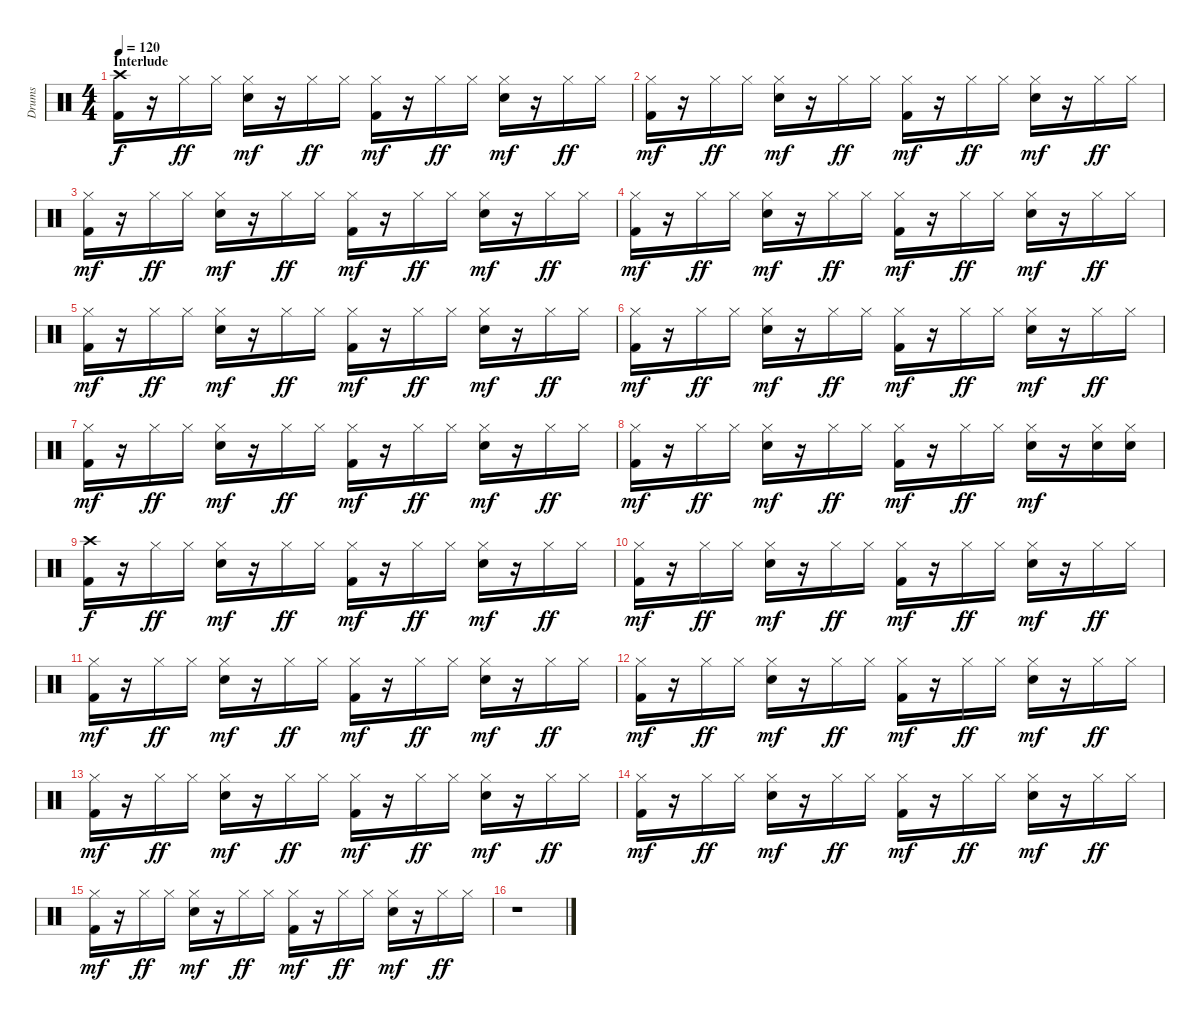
\track ("Drums" "Drums") {instrument percussion}
\staff {score}
\articulation defaults
\ts (4 4)
\section ("" "Interlude")
\tempo 120
\clef neutral
\ks c
("Crash high (hit)" "Kick (hit) 2").16{dy f} r.16 "Hi-Hat (closed)".16{dy ff} "Hi-Hat (closed)".16 ("Hi-Hat (closed)" "Electric Snare (hit)").16{dy mf} r.16 "Hi-Hat (closed)".16{dy ff} "Hi-Hat (closed)".16 ("Hi-Hat (closed)" "Kick (hit) 2").16{dy mf} r.16 "Hi-Hat (closed)".16{dy ff} "Hi-Hat (closed)".16 ("Hi-Hat (closed)" "Electric Snare (hit)").16{dy mf} r.16 "Hi-Hat (closed)".16{dy ff} "Hi-Hat (closed)".16 |
("Hi-Hat (closed)" "Kick (hit) 2").16{dy mf} r.16 "Hi-Hat (closed)".16{dy ff} "Hi-Hat (closed)".16 ("Hi-Hat (closed)" "Electric Snare (hit)").16{dy mf} r.16 "Hi-Hat (closed)".16{dy ff} "Hi-Hat (closed)".16 ("Hi-Hat (closed)" "Kick (hit) 2").16{dy mf} r.16 "Hi-Hat (closed)".16{dy ff} "Hi-Hat (closed)".16 ("Hi-Hat (closed)" "Electric Snare (hit)").16{dy mf} r.16 "Hi-Hat (closed)".16{dy ff} "Hi-Hat (closed)".16 |
("Hi-Hat (closed)" "Kick (hit) 2").16{dy mf} r.16 "Hi-Hat (closed)".16{dy ff} "Hi-Hat (closed)".16 ("Hi-Hat (closed)" "Electric Snare (hit)").16{dy mf} r.16 "Hi-Hat (closed)".16{dy ff} "Hi-Hat (closed)".16 ("Hi-Hat (closed)" "Kick (hit) 2").16{dy mf} r.16 "Hi-Hat (closed)".16{dy ff} "Hi-Hat (closed)".16 ("Hi-Hat (closed)" "Electric Snare (hit)").16{dy mf} r.16 "Hi-Hat (closed)".16{dy ff} "Hi-Hat (closed)".16 |
("Hi-Hat (closed)" "Kick (hit) 2").16{dy mf} r.16 "Hi-Hat (closed)".16{dy ff} "Hi-Hat (closed)".16 ("Hi-Hat (closed)" "Electric Snare (hit)").16{dy mf} r.16 "Hi-Hat (closed)".16{dy ff} "Hi-Hat (closed)".16 ("Hi-Hat (closed)" "Kick (hit) 2").16{dy mf} r.16 "Hi-Hat (closed)".16{dy ff} "Hi-Hat (closed)".16 ("Hi-Hat (closed)" "Electric Snare (hit)").16{dy mf} r.16 "Hi-Hat (closed)".16{dy ff} "Hi-Hat (closed)".16 |
("Hi-Hat (closed)" "Kick (hit) 2").16{dy mf} r.16 "Hi-Hat (closed)".16{dy ff} "Hi-Hat (closed)".16 ("Hi-Hat (closed)" "Electric Snare (hit)").16{dy mf} r.16 "Hi-Hat (closed)".16{dy ff} "Hi-Hat (closed)".16 ("Hi-Hat (closed)" "Kick (hit) 2").16{dy mf} r.16 "Hi-Hat (closed)".16{dy ff} "Hi-Hat (closed)".16 ("Hi-Hat (closed)" "Electric Snare (hit)").16{dy mf} r.16 "Hi-Hat (closed)".16{dy ff} "Hi-Hat (closed)".16 |
("Hi-Hat (closed)" "Kick (hit) 2").16{dy mf} r.16 "Hi-Hat (closed)".16{dy ff} "Hi-Hat (closed)".16 ("Hi-Hat (closed)" "Electric Snare (hit)").16{dy mf} r.16 "Hi-Hat (closed)".16{dy ff} "Hi-Hat (closed)".16 ("Hi-Hat (closed)" "Kick (hit) 2").16{dy mf} r.16 "Hi-Hat (closed)".16{dy ff} "Hi-Hat (closed)".16 ("Hi-Hat (closed)" "Electric Snare (hit)").16{dy mf} r.16 "Hi-Hat (closed)".16{dy ff} "Hi-Hat (closed)".16 |
("Hi-Hat (closed)" "Kick (hit) 2").16{dy mf} r.16 "Hi-Hat (closed)".16{dy ff} "Hi-Hat (closed)".16 ("Hi-Hat (closed)" "Electric Snare (hit)").16{dy mf} r.16 "Hi-Hat (closed)".16{dy ff} "Hi-Hat (closed)".16 ("Hi-Hat (closed)" "Kick (hit) 2").16{dy mf} r.16 "Hi-Hat (closed)".16{dy ff} "Hi-Hat (closed)".16 ("Hi-Hat (closed)" "Electric Snare (hit)").16{dy mf} r.16 "Hi-Hat (closed)".16{dy ff} "Hi-Hat (closed)".16 |
("Hi-Hat (closed)" "Kick (hit) 2").16{dy mf} r.16 "Hi-Hat (closed)".16{dy ff} "Hi-Hat (closed)".16 ("Hi-Hat (closed)" "Electric Snare (hit)").16{dy mf} r.16 "Hi-Hat (closed)".16{dy ff} "Hi-Hat (closed)".16 ("Hi-Hat (closed)" "Kick (hit) 2").16{dy mf} r.16 "Hi-Hat (closed)".16{dy ff} "Hi-Hat (closed)".16 ("Hi-Hat (closed)" "Electric Snare (hit)").16{dy mf} r.16 ("Hi-Hat (closed)" "Electric Snare (hit)").16 ("Hi-Hat (closed)" "Electric Snare (hit)").16 |
("Crash high (hit)" "Kick (hit) 2").16{dy f} r.16 "Hi-Hat (closed)".16{dy ff} "Hi-Hat (closed)".16 ("Hi-Hat (closed)" "Electric Snare (hit)").16{dy mf} r.16 "Hi-Hat (closed)".16{dy ff} "Hi-Hat (closed)".16 ("Hi-Hat (closed)" "Kick (hit) 2").16{dy mf} r.16 "Hi-Hat (closed)".16{dy ff} "Hi-Hat (closed)".16 ("Hi-Hat (closed)" "Electric Snare (hit)").16{dy mf} r.16 "Hi-Hat (closed)".16{dy ff} "Hi-Hat (closed)".16 |
("Hi-Hat (closed)" "Kick (hit) 2").16{dy mf} r.16 "Hi-Hat (closed)".16{dy ff} "Hi-Hat (closed)".16 ("Hi-Hat (closed)" "Electric Snare (hit)").16{dy mf} r.16 "Hi-Hat (closed)".16{dy ff} "Hi-Hat (closed)".16 ("Hi-Hat (closed)" "Kick (hit) 2").16{dy mf} r.16 "Hi-Hat (closed)".16{dy ff} "Hi-Hat (closed)".16 ("Hi-Hat (closed)" "Electric Snare (hit)").16{dy mf} r.16 "Hi-Hat (closed)".16{dy ff} "Hi-Hat (closed)".16 |
("Hi-Hat (closed)" "Kick (hit) 2").16{dy mf} r.16 "Hi-Hat (closed)".16{dy ff} "Hi-Hat (closed)".16 ("Hi-Hat (closed)" "Electric Snare (hit)").16{dy mf} r.16 "Hi-Hat (closed)".16{dy ff} "Hi-Hat (closed)".16 ("Hi-Hat (closed)" "Kick (hit) 2").16{dy mf} r.16 "Hi-Hat (closed)".16{dy ff} "Hi-Hat (closed)".16 ("Hi-Hat (closed)" "Electric Snare (hit)").16{dy mf} r.16 "Hi-Hat (closed)".16{dy ff} "Hi-Hat (closed)".16 |
("Hi-Hat (closed)" "Kick (hit) 2").16{dy mf} r.16 "Hi-Hat (closed)".16{dy ff} "Hi-Hat (closed)".16 ("Hi-Hat (closed)" "Electric Snare (hit)").16{dy mf} r.16 "Hi-Hat (closed)".16{dy ff} "Hi-Hat (closed)".16 ("Hi-Hat (closed)" "Kick (hit) 2").16{dy mf} r.16 "Hi-Hat (closed)".16{dy ff} "Hi-Hat (closed)".16 ("Hi-Hat (closed)" "Electric Snare (hit)").16{dy mf} r.16 "Hi-Hat (closed)".16{dy ff} "Hi-Hat (closed)".16 |
("Hi-Hat (closed)" "Kick (hit) 2").16{dy mf} r.16 "Hi-Hat (closed)".16{dy ff} "Hi-Hat (closed)".16 ("Hi-Hat (closed)" "Electric Snare (hit)").16{dy mf} r.16 "Hi-Hat (closed)".16{dy ff} "Hi-Hat (closed)".16 ("Hi-Hat (closed)" "Kick (hit) 2").16{dy mf} r.16 "Hi-Hat (closed)".16{dy ff} "Hi-Hat (closed)".16 ("Hi-Hat (closed)" "Electric Snare (hit)").16{dy mf} r.16 "Hi-Hat (closed)".16{dy ff} "Hi-Hat (closed)".16 |
("Hi-Hat (closed)" "Kick (hit) 2").16{dy mf} r.16 "Hi-Hat (closed)".16{dy ff} "Hi-Hat (closed)".16 ("Hi-Hat (closed)" "Electric Snare (hit)").16{dy mf} r.16 "Hi-Hat (closed)".16{dy ff} "Hi-Hat (closed)".16 ("Hi-Hat (closed)" "Kick (hit) 2").16{dy mf} r.16 "Hi-Hat (closed)".16{dy ff} "Hi-Hat (closed)".16 ("Hi-Hat (closed)" "Electric Snare (hit)").16{dy mf} r.16 "Hi-Hat (closed)".16{dy ff} "Hi-Hat (closed)".16 |
("Hi-Hat (closed)" "Kick (hit) 2").16{dy mf} r.16 "Hi-Hat (closed)".16{dy ff} "Hi-Hat (closed)".16 ("Hi-Hat (closed)" "Electric Snare (hit)").16{dy mf} r.16 "Hi-Hat (closed)".16{dy ff} "Hi-Hat (closed)".16 ("Hi-Hat (closed)" "Kick (hit) 2").16{dy mf} r.16 "Hi-Hat (closed)".16{dy ff} "Hi-Hat (closed)".16 ("Hi-Hat (closed)" "Electric Snare (hit)").16{dy mf} r.16 "Hi-Hat (closed)".16{dy ff} "Hi-Hat (closed)".16 |
r.1
